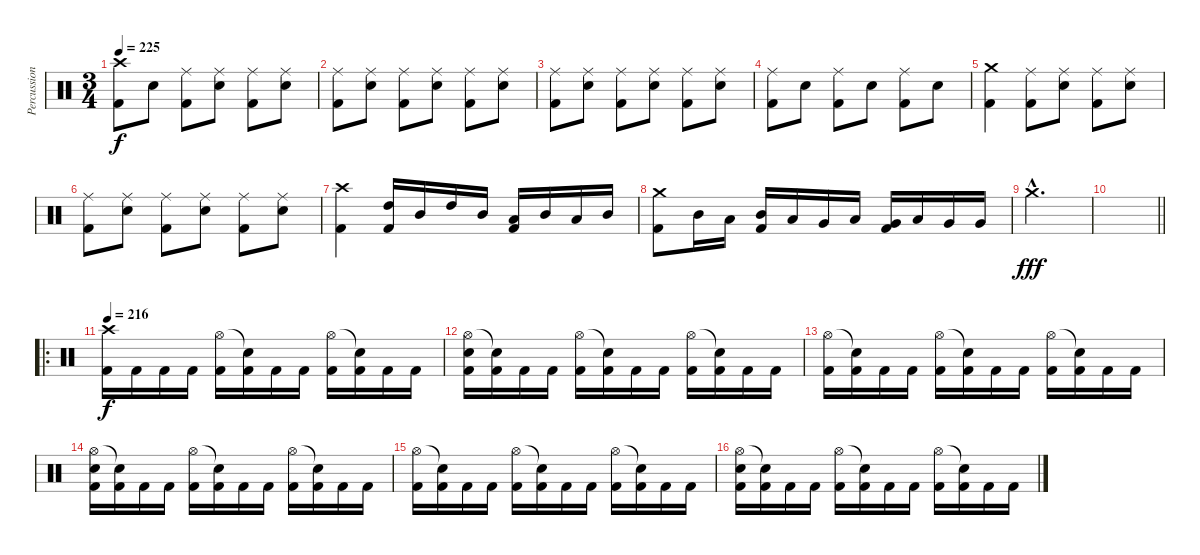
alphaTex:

\track ("Percussion" "Percussion") {instrument percussion}
\staff {score}
\articulation defaults
\ts (3 4)
\tempo 225
\clef neutral
\ks c
("Crash high (hit)" "Kick (hit) 2").8{dy f} "Snare (hit) 2".8 ("Ride (middle)" "Kick (hit) 2").8 ("Ride (middle)" "Snare (hit) 2").8 ("Ride (middle)" "Kick (hit) 2").8 ("Ride (middle)" "Snare (hit) 2").8 |
("Ride (middle)" "Kick (hit) 2").8 ("Ride (middle)" "Snare (hit) 2").8 ("Ride (middle)" "Kick (hit) 2").8 ("Ride (middle)" "Snare (hit) 2").8 ("Ride (middle)" "Kick (hit) 2").8 ("Ride (middle)" "Snare (hit) 2").8 |
("Ride (middle)" "Kick (hit) 2").8 ("Ride (middle)" "Snare (hit) 2").8 ("Ride (middle)" "Kick (hit) 2").8 ("Ride (middle)" "Snare (hit) 2").8 ("Ride (middle)" "Kick (hit) 2").8 ("Ride (middle)" "Snare (hit) 2").8 |
("Ride (middle)" "Kick (hit) 2").8 "Snare (hit) 2".8 ("Ride (middle)" "Kick (hit) 2").8 "Snare (hit) 2".8 ("Ride (middle)" "Kick (hit) 2").8 "Snare (hit) 2".8 |
("Crash medium (hit)" "Kick (hit) 2").4 ("Ride (middle)" "Kick (hit) 2").8 ("Ride (middle)" "Snare (hit) 2").8 ("Ride (middle)" "Kick (hit) 2").8 ("Ride (middle)" "Snare (hit) 2").8 |
("Ride (middle)" "Kick (hit) 2").8 ("Ride (middle)" "Snare (hit) 2").8 ("Ride (middle)" "Kick (hit) 2").8 ("Ride (middle)" "Snare (hit) 2").8 ("Ride (middle)" "Kick (hit) 2").8 ("Ride (middle)" "Snare (hit) 2").8 |
("Crash high (hit)" "Kick (hit) 2").4 ("High Tom (hit)" "Kick (hit) 2").16 "Mid Tom (hit)".16 "High Tom (hit)".16 "Mid Tom (hit)".16 ("Low Tom (hit)" "Kick (hit) 2").16 "Mid Tom (hit)".16 "Low Tom (hit)".16 "Mid Tom (hit)".16 |
("Crash medium (hit)" "Kick (hit) 2").8 "Mid Tom (hit)".16 "Low Tom (hit)".16 ("Mid Tom (hit)" "Kick (hit) 2").16 "Low Tom (hit)".16 "Very Low Tom (hit)".16 "Low Tom (hit)".16 ("Very Low Tom (hit)" "Kick (hit) 2").16 "Low Tom (hit)".16 "Very Low Tom (hit)".16 "Very Low Tom (hit)".16 |
"Crash medium (hit)"{hac}.2{d dy fff} |
\barLineRight lightlight
|
\ro
\tempo 215
\tempo 216
("Crash high (hit)" "Kick (hit) 2").16{dy f} "Kick (hit) 2".16 "Kick (hit) 2".16 "Kick (hit) 2".16 ("Hi-Hat (open)" "Kick (hit) 2").16 ("Snare (hit)"{t} "Kick (hit) 2").16 "Kick (hit) 2".16 "Kick (hit) 2".16 ("Hi-Hat (open)" "Kick (hit) 2").16 ("Snare (hit)"{t} "Kick (hit) 2").16 "Kick (hit) 2".16 "Kick (hit) 2".16 |
("Hi-Hat (open)" "Snare (hit) 2" "Kick (hit) 2").16 ("Snare (hit)"{t} "Kick (hit) 2").16 "Kick (hit) 2".16 "Kick (hit) 2".16 ("Hi-Hat (open)" "Kick (hit) 2").16 ("Snare (hit)"{t} "Kick (hit) 2").16 "Kick (hit) 2".16 "Kick (hit) 2".16 ("Hi-Hat (open)" "Kick (hit) 2").16 ("Snare (hit)"{t} "Kick (hit) 2").16 "Kick (hit) 2".16 "Kick (hit) 2".16 |
("Hi-Hat (open)" "Kick (hit) 2").16 ("Snare (hit)"{t} "Kick (hit) 2").16 "Kick (hit) 2".16 "Kick (hit) 2".16 ("Hi-Hat (open)" "Kick (hit) 2").16 ("Snare (hit)"{t} "Kick (hit) 2").16 "Kick (hit) 2".16 "Kick (hit) 2".16 ("Hi-Hat (open)" "Kick (hit) 2").16 ("Snare (hit)"{t} "Kick (hit) 2").16 "Kick (hit) 2".16 "Kick (hit) 2".16 |
("Hi-Hat (open)" "Snare (hit) 2" "Kick (hit) 2").16 ("Snare (hit)"{t} "Kick (hit) 2").16 "Kick (hit) 2".16 "Kick (hit) 2".16 ("Hi-Hat (open)" "Kick (hit) 2").16 ("Snare (hit)"{t} "Kick (hit) 2").16 "Kick (hit) 2".16 "Kick (hit) 2".16 ("Hi-Hat (open)" "Kick (hit) 2").16 ("Snare (hit)"{t} "Kick (hit) 2").16 "Kick (hit) 2".16 "Kick (hit) 2".16 |
("Hi-Hat (open)" "Kick (hit) 2").16 ("Snare (hit)"{t} "Kick (hit) 2").16 "Kick (hit) 2".16 "Kick (hit) 2".16 ("Hi-Hat (open)" "Kick (hit) 2").16 ("Snare (hit)"{t} "Kick (hit) 2").16 "Kick (hit) 2".16 "Kick (hit) 2".16 ("Hi-Hat (open)" "Kick (hit) 2").16 ("Snare (hit)"{t} "Kick (hit) 2").16 "Kick (hit) 2".16 "Kick (hit) 2".16 |
("Hi-Hat (open)" "Snare (hit) 2" "Kick (hit) 2").16 ("Snare (hit)"{t} "Kick (hit) 2").16 "Kick (hit) 2".16 "Kick (hit) 2".16 ("Hi-Hat (open)" "Kick (hit) 2").16 ("Snare (hit)"{t} "Kick (hit) 2").16 "Kick (hit) 2".16 "Kick (hit) 2".16 ("Hi-Hat (open)" "Kick (hit) 2").16 ("Snare (hit)"{t} "Kick (hit) 2").16 "Kick (hit) 2".16 "Kick (hit) 2".16
